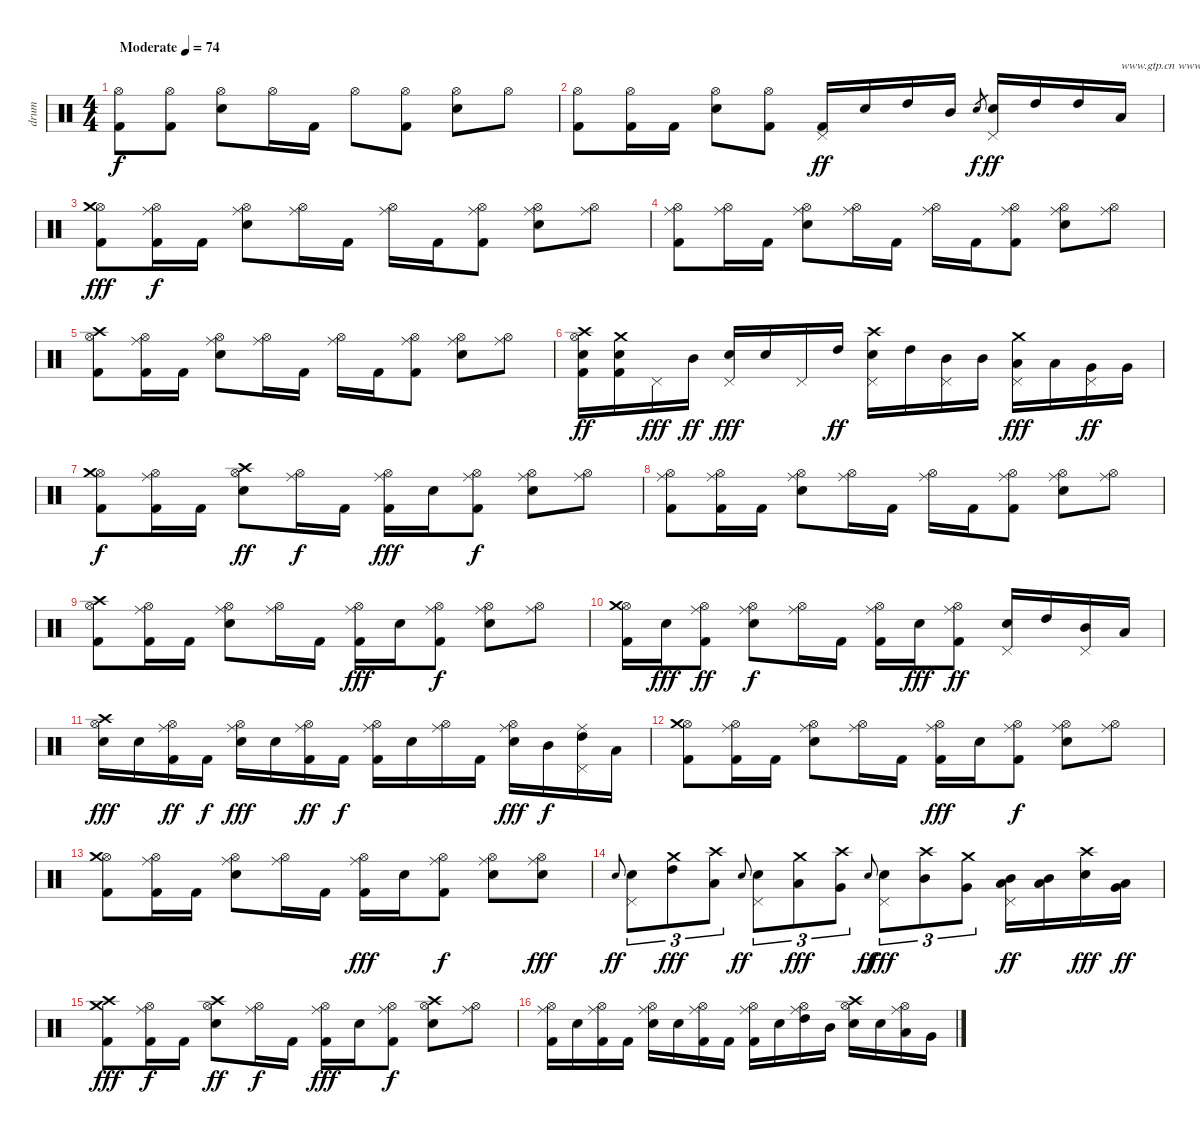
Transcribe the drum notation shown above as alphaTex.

\track ("drum" "drum") {instrument percussion}
\staff {score}
\articulation defaults
\ts (4 4)
\tempo (74 "Moderate")
\clef neutral
\ks c
("Hi-Hat (open)" "Kick (hit) 2").8{dy f} ("Hi-Hat (open)" "Kick (hit) 2").8 ("Hi-Hat (open)" "Snare (hit) 2").8 "Hi-Hat (open)".16 "Kick (hit) 2".16 "Hi-Hat (open)".8 ("Hi-Hat (open)" "Kick (hit) 2").8 ("Hi-Hat (open)" "Snare (hit) 2").8 "Hi-Hat (open)".8 |
("Hi-Hat (open)" "Kick (hit) 2").8 ("Hi-Hat (open)" "Kick (hit) 2").16 "Kick (hit) 2".16 ("Hi-Hat (open)" "Snare (hit) 2").8 ("Hi-Hat (open)" "Kick (hit) 2").8 ("Pedal Hi-Hat (hit)" "Kick (hit) 2").16{dy ff} "Snare (hit) 2".16 "High Tom (hit)".16 "Mid Tom (hit)".16 "Snare (hit) 2".8{gr dy f} ("Pedal Hi-Hat (hit)" "Snare (hit) 2").16{dy ff} "High Tom (hit)".16 "High Tom (hit)".16 "Low Tom (hit)".16{txt "www.gtp.cn www.51gtp.com联合为您提供优秀的GTP!"} |
("Hi-Hat (open)" "Crash medium (hit)" "Kick (hit) 2").8{dy fff} ("Hi-Hat (open)" "Ride (middle)" "Kick (hit) 2").16{dy f} "Kick (hit) 2".16 ("Hi-Hat (open)" "Ride (middle)" "Snare (hit) 2").8 ("Hi-Hat (open)" "Ride (middle)").16 "Kick (hit) 2".16 ("Hi-Hat (open)" "Ride (middle)").16 "Kick (hit) 2".16 ("Hi-Hat (open)" "Ride (middle)" "Kick (hit) 2").8 ("Hi-Hat (open)" "Ride (middle)" "Snare (hit) 2").8 ("Hi-Hat (open)" "Ride (middle)").8 |
("Hi-Hat (open)" "Ride (middle)" "Kick (hit) 2").8 ("Hi-Hat (open)" "Ride (middle)").16 "Kick (hit) 2".16 ("Hi-Hat (open)" "Ride (middle)" "Snare (hit) 2").8 ("Hi-Hat (open)" "Ride (middle)").16 "Kick (hit) 2".16 ("Hi-Hat (open)" "Ride (middle)").16 "Kick (hit) 2".16 ("Hi-Hat (open)" "Ride (middle)" "Kick (hit) 2").8 ("Hi-Hat (open)" "Ride (middle)" "Snare (hit) 2").8 ("Hi-Hat (open)" "Ride (middle)").8 |
("Hi-Hat (open)" "Crash high (hit)" "Kick (hit) 2").8 ("Hi-Hat (open)" "Ride (middle)" "Kick (hit) 2").16 "Kick (hit) 2".16 ("Hi-Hat (open)" "Ride (middle)" "Snare (hit) 2").8 ("Hi-Hat (open)" "Ride (middle)").16 "Kick (hit) 2".16 ("Hi-Hat (open)" "Ride (middle)").16 "Kick (hit) 2".16 ("Hi-Hat (open)" "Ride (middle)" "Kick (hit) 2").8 ("Hi-Hat (open)" "Ride (middle)" "Snare (hit) 2").8 ("Hi-Hat (open)" "Ride (middle)").8 |
("Hi-Hat (open)" "Crash high (hit)" "Snare (hit) 2" "Kick (hit) 2").16{dy ff} ("Crash medium (hit)" "Snare (hit) 2" "Kick (hit) 2").16 "Pedal Hi-Hat (hit)".16{dy fff} "Mid Tom (hit)".16{dy ff} ("Pedal Hi-Hat (hit)" "Snare (hit) 2").16{dy fff} "Snare (hit) 2".16 "Pedal Hi-Hat (hit)".16 "High Tom (hit)".16{dy ff} ("Pedal Hi-Hat (hit)" "Crash high (hit)" "Snare (hit) 2").16 "High Tom (hit)".16 ("Pedal Hi-Hat (hit)" "Mid Tom (hit)").16 "Mid Tom (hit)".16 ("Pedal Hi-Hat (hit)" "Crash medium (hit)" "Low Tom (hit)").16{dy fff} "Low Tom (hit)".16 ("Pedal Hi-Hat (hit)" "Very Low Tom (hit)").16{dy ff} "Very Low Tom (hit)".16 |
("Hi-Hat (open)" "Crash medium (hit)" "Kick (hit) 2").8{dy f} ("Hi-Hat (open)" "Ride (middle)" "Kick (hit) 2").16 "Kick (hit) 2".16 ("Hi-Hat (open)" "Crash high (hit)" "Snare (hit) 2").8{dy ff} ("Hi-Hat (open)" "Ride (middle)").16{dy f} "Kick (hit) 2".16 ("Hi-Hat (open)" "Ride (middle)" "Kick (hit) 2").16{dy fff} "Snare (hit) 2".16 ("Hi-Hat (open)" "Ride (middle)" "Kick (hit) 2").8{dy f} ("Hi-Hat (open)" "Ride (middle)" "Snare (hit) 2").8 ("Hi-Hat (open)" "Ride (middle)").8 |
("Hi-Hat (open)" "Ride (middle)" "Kick (hit) 2").8 ("Hi-Hat (open)" "Ride (middle)" "Kick (hit) 2").16 "Kick (hit) 2".16 ("Hi-Hat (open)" "Ride (middle)" "Snare (hit) 2").8 ("Hi-Hat (open)" "Ride (middle)").16 "Kick (hit) 2".16 ("Hi-Hat (open)" "Ride (middle)").16 "Kick (hit) 2".16 ("Hi-Hat (open)" "Ride (middle)" "Kick (hit) 2").8 ("Hi-Hat (open)" "Ride (middle)" "Snare (hit) 2").8 ("Hi-Hat (open)" "Ride (middle)").8 |
("Hi-Hat (open)" "Crash high (hit)" "Kick (hit) 2").8 ("Hi-Hat (open)" "Ride (middle)" "Kick (hit) 2").16 "Kick (hit) 2".16 ("Hi-Hat (open)" "Ride (middle)" "Snare (hit) 2").8 ("Hi-Hat (open)" "Ride (middle)").16 "Kick (hit) 2".16 ("Hi-Hat (open)" "Ride (middle)" "Kick (hit) 2").16{dy fff} "Snare (hit) 2".16 ("Hi-Hat (open)" "Ride (middle)" "Kick (hit) 2").8{dy f} ("Hi-Hat (open)" "Ride (middle)" "Snare (hit) 2").8 ("Hi-Hat (open)" "Ride (middle)").8 |
("Hi-Hat (open)" "Crash medium (hit)" "Kick (hit) 2").16 "Snare (hit) 2".16{dy fff} ("Hi-Hat (open)" "Ride (middle)" "Kick (hit) 2").8{dy ff} ("Hi-Hat (open)" "Ride (middle)" "Snare (hit) 2").8{dy f} ("Hi-Hat (open)" "Ride (middle)").16 "Kick (hit) 2".16 ("Hi-Hat (open)" "Ride (middle)" "Kick (hit) 2").16 "Snare (hit) 2".16{dy fff} ("Hi-Hat (open)" "Ride (middle)" "Kick (hit) 2").8{dy ff} ("Pedal Hi-Hat (hit)" "Snare (hit) 2").16 "High Tom (hit)".16 ("Pedal Hi-Hat (hit)" "Mid Tom (hit)").16 "Low Tom (hit)".16 |
("Hi-Hat (open)" "Crash high (hit)" "Snare (hit) 2").16{dy fff} "Snare (hit) 2".16 ("Hi-Hat (open)" "Ride (middle)" "Kick (hit) 2").16{dy ff} "Kick (hit) 2".16{dy f} ("Hi-Hat (open)" "Ride (middle)" "Snare (hit) 2").16{dy fff} "Snare (hit) 2".16 ("Hi-Hat (open)" "Ride (middle)" "Kick (hit) 2").16{dy ff} "Kick (hit) 2".16{dy f} ("Hi-Hat (open)" "Ride (middle)" "Kick (hit) 2").16 "Snare (hit) 2".16 ("Hi-Hat (open)" "Ride (middle)").16 "Kick (hit) 2".16 ("Hi-Hat (open)" "Ride (middle)" "Snare (hit) 2").16{dy fff} "Mid Tom (hit)".16{dy f} ("Pedal Hi-Hat (hit)" "Ride (middle)" "High Tom (hit)").16 "Low Tom (hit)".16 |
("Hi-Hat (open)" "Crash medium (hit)" "Kick (hit) 2").8 ("Hi-Hat (open)" "Ride (middle)" "Kick (hit) 2").16 "Kick (hit) 2".16 ("Hi-Hat (open)" "Ride (middle)" "Snare (hit) 2").8 ("Hi-Hat (open)" "Ride (middle)").16 "Kick (hit) 2".16 ("Hi-Hat (open)" "Ride (middle)" "Kick (hit) 2").16{dy fff} "Snare (hit) 2".16 ("Hi-Hat (open)" "Ride (middle)" "Kick (hit) 2").8{dy f} ("Hi-Hat (open)" "Ride (middle)" "Snare (hit) 2").8 ("Hi-Hat (open)" "Ride (middle)").8 |
("Hi-Hat (open)" "Crash medium (hit)" "Kick (hit) 2").8 ("Hi-Hat (open)" "Ride (middle)" "Kick (hit) 2").16 "Kick (hit) 2".16 ("Hi-Hat (open)" "Ride (middle)" "Snare (hit) 2").8 ("Hi-Hat (open)" "Ride (middle)").16 "Kick (hit) 2".16 ("Hi-Hat (open)" "Ride (middle)" "Kick (hit) 2").16{dy fff} "Snare (hit) 2".16 ("Hi-Hat (open)" "Ride (middle)" "Kick (hit) 2").8{dy f} ("Hi-Hat (open)" "Ride (middle)" "Snare (hit) 2").8 ("Hi-Hat (open)" "Ride (middle)" "Snare (hit) 2").8{dy fff} |
"Snare (hit) 2".8{gr onbeat dy ff} ("Pedal Hi-Hat (hit)" "Snare (hit) 2").8{tu (3 2)} ("Crash medium (hit)" "High Tom (hit)").8{tu (3 2) dy fff} ("Crash high (hit)" "Low Tom (hit)").8{tu (3 2)} "Snare (hit) 2".8{gr onbeat dy ff} ("Pedal Hi-Hat (hit)" "Snare (hit) 2").8{tu (3 2)} ("Crash medium (hit)" "Low Tom (hit)").8{tu (3 2) dy fff} ("Crash high (hit)" "Very Low Tom (hit)").8{tu (3 2)} "Snare (hit) 2".8{gr onbeat dy ff} ("Pedal Hi-Hat (hit)" "Snare (hit) 2").8{tu (3 2) dy fff} ("Crash high (hit)" "Mid Tom (hit)").8{tu (3 2)} ("Crash medium (hit)" "Very Low Tom (hit)").8{tu (3 2)} ("Pedal Hi-Hat (hit)" "Low Tom (hit)" "Mid Tom (hit)").16{dy ff} ("Low Tom (hit)" "Mid Tom (hit)").16 ("Crash high (hit)" "Snare (hit) 2").16{dy fff} ("Very Low Tom (hit)" "Low Tom (hit)").16{dy ff} |
("Crash high (hit)" "Crash medium (hit)" "Kick (hit) 2").8{dy fff} ("Hi-Hat (open)" "Ride (middle)" "Kick (hit) 2").16{dy f} "Kick (hit) 2".16 ("Hi-Hat (open)" "Crash high (hit)" "Snare (hit) 2").8{dy ff} ("Hi-Hat (open)" "Ride (middle)").16{dy f} "Kick (hit) 2".16 ("Hi-Hat (open)" "Ride (middle)" "Kick (hit) 2").16{dy fff} "Snare (hit) 2".16 ("Hi-Hat (open)" "Ride (middle)" "Kick (hit) 2").8{dy f} ("Hi-Hat (open)" "Crash high (hit)" "Snare (hit) 2").8 ("Hi-Hat (open)" "Ride (middle)").8 |
("Hi-Hat (open)" "Ride (middle)" "Kick (hit) 2").16 "Snare (hit) 2".16 ("Hi-Hat (open)" "Ride (middle)" "Kick (hit) 2").16 "Kick (hit) 2".16 ("Hi-Hat (open)" "Ride (middle)" "Snare (hit) 2").16 "Snare (hit) 2".16 ("Hi-Hat (open)" "Ride (middle)" "Kick (hit) 2").16 "Kick (hit) 2".16 ("Hi-Hat (open)" "Ride (middle)" "Kick (hit) 2").16 "Snare (hit) 2".16 ("Hi-Hat (open)" "Ride (middle)" "High Tom (hit)").16 "Mid Tom (hit)".16 ("Hi-Hat (open)" "Crash high (hit)" "Snare (hit) 2").16 "Snare (hit) 2".16 ("Hi-Hat (open)" "Ride (middle)" "Low Tom (hit)").16 "Very Low Tom (hit)".16
